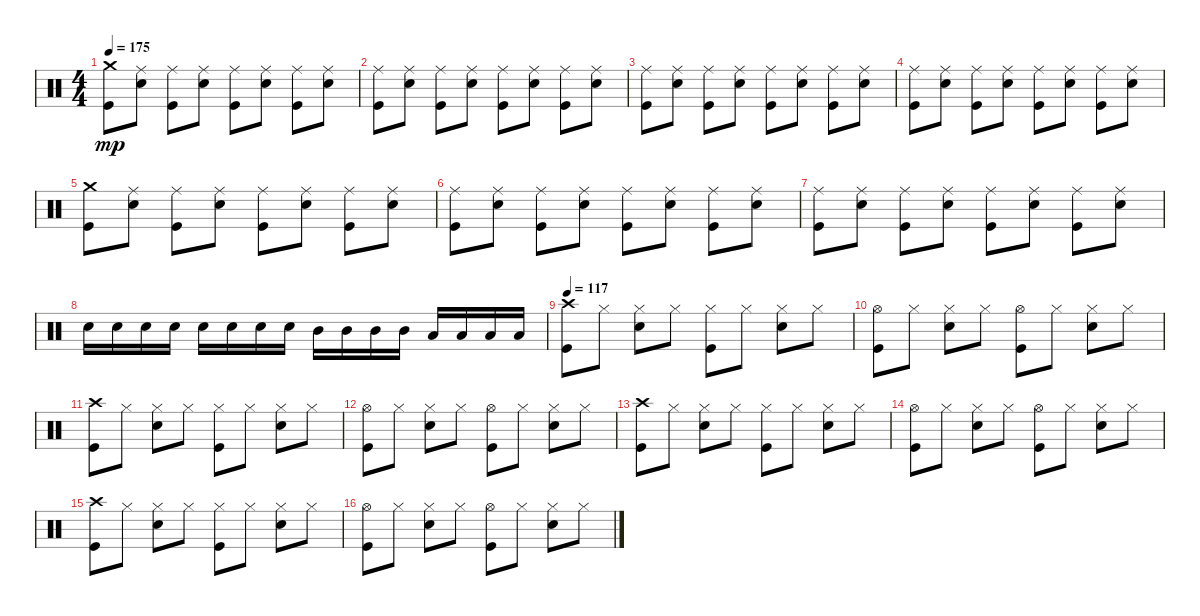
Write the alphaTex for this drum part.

\track "" {instrument percussion}
\staff {score}
\articulation defaults
\ts (4 4)
\tempo 175
\clef neutral
\ks c
("Kick (hit)" "Crash medium (hit)").8{dy mp} ("Snare (hit) 2" "Ride (middle)").8 ("Kick (hit)" "Ride (middle)").8 ("Snare (hit) 2" "Ride (middle)").8 ("Kick (hit)" "Ride (middle)").8 ("Snare (hit) 2" "Ride (middle)").8 ("Kick (hit)" "Ride (middle)").8 ("Snare (hit) 2" "Ride (middle)").8 |
("Kick (hit)" "Ride (middle)").8 ("Snare (hit) 2" "Ride (middle)").8 ("Kick (hit)" "Ride (middle)").8 ("Snare (hit) 2" "Ride (middle)").8 ("Kick (hit)" "Ride (middle)").8 ("Snare (hit) 2" "Ride (middle)").8 ("Kick (hit)" "Ride (middle)").8 ("Snare (hit) 2" "Ride (middle)").8 |
("Kick (hit)" "Ride (middle)").8 ("Snare (hit) 2" "Ride (middle)").8 ("Kick (hit)" "Ride (middle)").8 ("Snare (hit) 2" "Ride (middle)").8 ("Kick (hit)" "Ride (middle)").8 ("Snare (hit) 2" "Ride (middle)").8 ("Kick (hit)" "Ride (middle)").8 ("Snare (hit) 2" "Ride (middle)").8 |
("Kick (hit)" "Ride (middle)").8 ("Snare (hit) 2" "Ride (middle)").8 ("Kick (hit)" "Ride (middle)").8 ("Snare (hit) 2" "Ride (middle)").8 ("Kick (hit)" "Ride (middle)").8 ("Snare (hit) 2" "Ride (middle)").8 ("Kick (hit)" "Ride (middle)").8 ("Snare (hit) 2" "Ride (middle)").8 |
("Kick (hit)" "Crash medium (hit)").8 ("Snare (hit) 2" "Ride (middle)").8 ("Kick (hit)" "Ride (middle)").8 ("Snare (hit) 2" "Ride (middle)").8 ("Kick (hit)" "Ride (middle)").8 ("Snare (hit) 2" "Ride (middle)").8 ("Kick (hit)" "Ride (middle)").8 ("Snare (hit) 2" "Ride (middle)").8 |
("Kick (hit)" "Ride (middle)").8 ("Snare (hit) 2" "Ride (middle)").8 ("Kick (hit)" "Ride (middle)").8 ("Snare (hit) 2" "Ride (middle)").8 ("Kick (hit)" "Ride (middle)").8 ("Snare (hit) 2" "Ride (middle)").8 ("Kick (hit)" "Ride (middle)").8 ("Snare (hit) 2" "Ride (middle)").8 |
("Kick (hit)" "Ride (middle)").8 ("Snare (hit) 2" "Ride (middle)").8 ("Kick (hit)" "Ride (middle)").8 ("Snare (hit) 2" "Ride (middle)").8 ("Kick (hit)" "Ride (middle)").8 ("Snare (hit) 2" "Ride (middle)").8 ("Kick (hit)" "Ride (middle)").8 ("Snare (hit) 2" "Ride (middle)").8 |
"Snare (hit) 2".16 "Snare (hit) 2".16 "Snare (hit) 2".16 "Snare (hit) 2".16 "Snare (hit) 2".16 "Snare (hit) 2".16 "Snare (hit) 2".16 "Snare (hit) 2".16 "Mid Tom (hit)".16 "Mid Tom (hit)".16 "Mid Tom (hit)".16 "Mid Tom (hit)".16 "Low Tom (hit)".16 "Low Tom (hit)".16 "Low Tom (hit)".16 "Low Tom (hit)".16 |
\tempo 117
("Crash high (hit)" "Kick (hit)").8 "Hi-Hat (closed)".8 ("Hi-Hat (closed)" "Snare (hit) 2").8 "Hi-Hat (closed)".8 ("Hi-Hat (closed)" "Kick (hit)").8 "Hi-Hat (closed)".8 ("Hi-Hat (closed)" "Snare (hit) 2").8 "Hi-Hat (closed)".8 |
("Kick (hit)" "Hi-Hat (open)").8 "Hi-Hat (closed)".8 ("Hi-Hat (closed)" "Snare (hit) 2").8 "Hi-Hat (closed)".8 ("Kick (hit)" "Hi-Hat (open)").8 "Hi-Hat (closed)".8 ("Hi-Hat (closed)" "Snare (hit) 2").8 "Hi-Hat (closed)".8 |
("Crash high (hit)" "Kick (hit)").8 "Hi-Hat (closed)".8 ("Hi-Hat (closed)" "Snare (hit) 2").8 "Hi-Hat (closed)".8 ("Hi-Hat (closed)" "Kick (hit)").8 "Hi-Hat (closed)".8 ("Hi-Hat (closed)" "Snare (hit) 2").8 "Hi-Hat (closed)".8 |
("Kick (hit)" "Hi-Hat (open)").8 "Hi-Hat (closed)".8 ("Hi-Hat (closed)" "Snare (hit) 2").8 "Hi-Hat (closed)".8 ("Kick (hit)" "Hi-Hat (open)").8 "Hi-Hat (closed)".8 ("Hi-Hat (closed)" "Snare (hit) 2").8 "Hi-Hat (closed)".8 |
("Crash high (hit)" "Kick (hit)").8 "Hi-Hat (closed)".8 ("Hi-Hat (closed)" "Snare (hit) 2").8 "Hi-Hat (closed)".8 ("Hi-Hat (closed)" "Kick (hit)").8 "Hi-Hat (closed)".8 ("Hi-Hat (closed)" "Snare (hit) 2").8 "Hi-Hat (closed)".8 |
("Kick (hit)" "Hi-Hat (open)").8 "Hi-Hat (closed)".8 ("Hi-Hat (closed)" "Snare (hit) 2").8 "Hi-Hat (closed)".8 ("Kick (hit)" "Hi-Hat (open)").8 "Hi-Hat (closed)".8 ("Hi-Hat (closed)" "Snare (hit) 2").8 "Hi-Hat (closed)".8 |
("Crash high (hit)" "Kick (hit)").8 "Hi-Hat (closed)".8 ("Hi-Hat (closed)" "Snare (hit) 2").8 "Hi-Hat (closed)".8 ("Hi-Hat (closed)" "Kick (hit)").8 "Hi-Hat (closed)".8 ("Hi-Hat (closed)" "Snare (hit) 2").8 "Hi-Hat (closed)".8 |
("Kick (hit)" "Hi-Hat (open)").8 "Hi-Hat (closed)".8 ("Hi-Hat (closed)" "Snare (hit) 2").8 "Hi-Hat (closed)".8 ("Kick (hit)" "Hi-Hat (open)").8 "Hi-Hat (closed)".8 ("Hi-Hat (closed)" "Snare (hit) 2").8 "Hi-Hat (closed)".8
